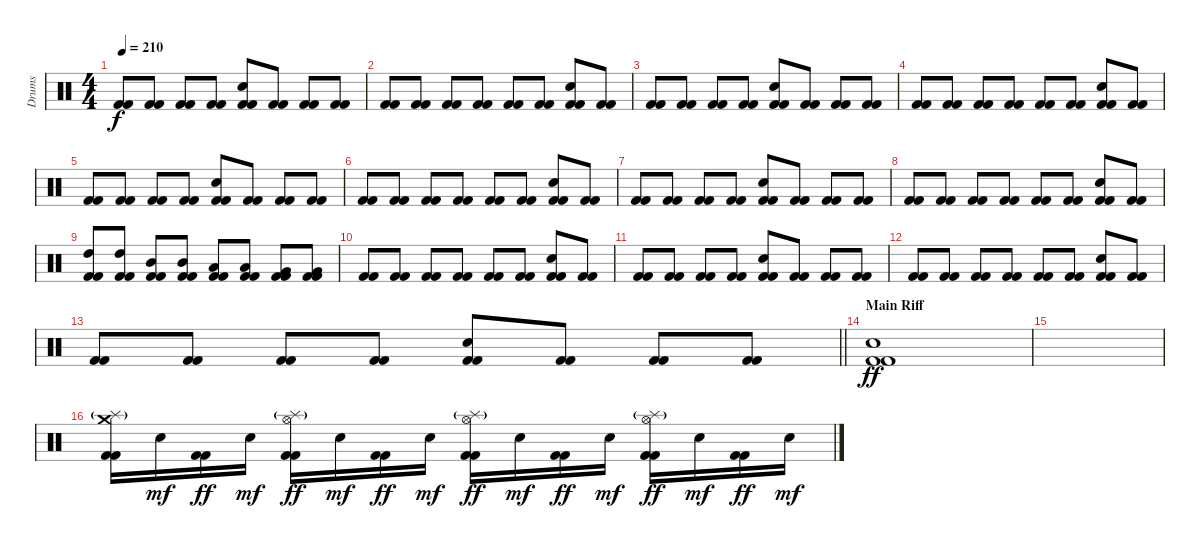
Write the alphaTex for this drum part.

\track ("Drums" "Drums") {instrument percussion}
\staff {score}
\articulation defaults
\ts (4 4)
\tempo 210
\clef neutral
\ks c
("Kick (hit) 2" "Kick (hit) 2").8{dy f} ("Kick (hit) 2" "Kick (hit) 2").8 ("Kick (hit) 2" "Kick (hit) 2").8 ("Kick (hit) 2" "Kick (hit) 2").8 ("Snare (hit) 2" "Kick (hit) 2" "Kick (hit) 2").8 ("Kick (hit) 2" "Kick (hit) 2").8 ("Kick (hit) 2" "Kick (hit) 2").8 ("Kick (hit) 2" "Kick (hit) 2").8 |
("Kick (hit) 2" "Kick (hit) 2").8 ("Kick (hit) 2" "Kick (hit) 2").8 ("Kick (hit) 2" "Kick (hit) 2").8 ("Kick (hit) 2" "Kick (hit) 2").8 ("Kick (hit) 2" "Kick (hit) 2").8 ("Kick (hit) 2" "Kick (hit) 2").8 ("Snare (hit) 2" "Kick (hit) 2" "Kick (hit) 2").8 ("Kick (hit) 2" "Kick (hit) 2").8 |
("Kick (hit) 2" "Kick (hit) 2").8 ("Kick (hit) 2" "Kick (hit) 2").8 ("Kick (hit) 2" "Kick (hit) 2").8 ("Kick (hit) 2" "Kick (hit) 2").8 ("Snare (hit) 2" "Kick (hit) 2" "Kick (hit) 2").8 ("Kick (hit) 2" "Kick (hit) 2").8 ("Kick (hit) 2" "Kick (hit) 2").8 ("Kick (hit) 2" "Kick (hit) 2").8 |
("Kick (hit) 2" "Kick (hit) 2").8 ("Kick (hit) 2" "Kick (hit) 2").8 ("Kick (hit) 2" "Kick (hit) 2").8 ("Kick (hit) 2" "Kick (hit) 2").8 ("Kick (hit) 2" "Kick (hit) 2").8 ("Kick (hit) 2" "Kick (hit) 2").8 ("Snare (hit) 2" "Kick (hit) 2" "Kick (hit) 2").8 ("Kick (hit) 2" "Kick (hit) 2").8 |
("Kick (hit) 2" "Kick (hit) 2").8 ("Kick (hit) 2" "Kick (hit) 2").8 ("Kick (hit) 2" "Kick (hit) 2").8 ("Kick (hit) 2" "Kick (hit) 2").8 ("Snare (hit) 2" "Kick (hit) 2" "Kick (hit) 2").8 ("Kick (hit) 2" "Kick (hit) 2").8 ("Kick (hit) 2" "Kick (hit) 2").8 ("Kick (hit) 2" "Kick (hit) 2").8 |
("Kick (hit) 2" "Kick (hit) 2").8 ("Kick (hit) 2" "Kick (hit) 2").8 ("Kick (hit) 2" "Kick (hit) 2").8 ("Kick (hit) 2" "Kick (hit) 2").8 ("Kick (hit) 2" "Kick (hit) 2").8 ("Kick (hit) 2" "Kick (hit) 2").8 ("Snare (hit) 2" "Kick (hit) 2" "Kick (hit) 2").8 ("Kick (hit) 2" "Kick (hit) 2").8 |
("Kick (hit) 2" "Kick (hit) 2").8 ("Kick (hit) 2" "Kick (hit) 2").8 ("Kick (hit) 2" "Kick (hit) 2").8 ("Kick (hit) 2" "Kick (hit) 2").8 ("Snare (hit) 2" "Kick (hit) 2" "Kick (hit) 2").8 ("Kick (hit) 2" "Kick (hit) 2").8 ("Kick (hit) 2" "Kick (hit) 2").8 ("Kick (hit) 2" "Kick (hit) 2").8 |
("Kick (hit) 2" "Kick (hit) 2").8 ("Kick (hit) 2" "Kick (hit) 2").8 ("Kick (hit) 2" "Kick (hit) 2").8 ("Kick (hit) 2" "Kick (hit) 2").8 ("Kick (hit) 2" "Kick (hit) 2").8 ("Kick (hit) 2" "Kick (hit) 2").8 ("Snare (hit) 2" "Kick (hit) 2" "Kick (hit) 2").8 ("Kick (hit) 2" "Kick (hit) 2").8 |
("High Tom (hit)" "Kick (hit) 2" "Kick (hit) 2").8 ("High Tom (hit)" "Kick (hit) 2" "Kick (hit) 2").8 ("Mid Tom (hit)" "Kick (hit) 2" "Kick (hit) 2").8 ("Mid Tom (hit)" "Kick (hit) 2" "Kick (hit) 2").8 ("Low Tom (hit)" "Kick (hit) 2" "Kick (hit) 2").8 ("Low Tom (hit)" "Kick (hit) 2" "Kick (hit) 2").8 ("Very Low Tom (hit)" "Kick (hit) 2" "Kick (hit) 2").8 ("Very Low Tom (hit)" "Kick (hit) 2" "Kick (hit) 2").8 |
("Kick (hit) 2" "Kick (hit) 2").8 ("Kick (hit) 2" "Kick (hit) 2").8 ("Kick (hit) 2" "Kick (hit) 2").8 ("Kick (hit) 2" "Kick (hit) 2").8 ("Kick (hit) 2" "Kick (hit) 2").8 ("Kick (hit) 2" "Kick (hit) 2").8 ("Snare (hit) 2" "Kick (hit) 2" "Kick (hit) 2").8 ("Kick (hit) 2" "Kick (hit) 2").8 |
("Kick (hit) 2" "Kick (hit) 2").8 ("Kick (hit) 2" "Kick (hit) 2").8 ("Kick (hit) 2" "Kick (hit) 2").8 ("Kick (hit) 2" "Kick (hit) 2").8 ("Snare (hit) 2" "Kick (hit) 2" "Kick (hit) 2").8 ("Kick (hit) 2" "Kick (hit) 2").8 ("Kick (hit) 2" "Kick (hit) 2").8 ("Kick (hit) 2" "Kick (hit) 2").8 |
("Kick (hit) 2" "Kick (hit) 2").8 ("Kick (hit) 2" "Kick (hit) 2").8 ("Kick (hit) 2" "Kick (hit) 2").8 ("Kick (hit) 2" "Kick (hit) 2").8 ("Kick (hit) 2" "Kick (hit) 2").8 ("Kick (hit) 2" "Kick (hit) 2").8 ("Snare (hit) 2" "Kick (hit) 2" "Kick (hit) 2").8 ("Kick (hit) 2" "Kick (hit) 2").8 |
\barLineRight lightlight
("Kick (hit) 2" "Kick (hit) 2").8 ("Kick (hit) 2" "Kick (hit) 2").8 ("Kick (hit) 2" "Kick (hit) 2").8 ("Kick (hit) 2" "Kick (hit) 2").8 ("Snare (hit) 2" "Kick (hit) 2" "Kick (hit) 2").8 ("Kick (hit) 2" "Kick (hit) 2").8 ("Kick (hit) 2" "Kick (hit) 2").8 ("Kick (hit) 2" "Kick (hit) 2").8 |
\section ("" "Main Riff")
("Snare (hit) 2" "Kick (hit) 2" "Kick (hit) 2").1{dy ff} |
|
("Crash medium (hit)" "Splash (hit)"{g} "Kick (hit) 2" "Kick (hit) 2").16 "Snare (hit) 2".16{dy mf} ("Kick (hit) 2" "Kick (hit) 2").16{dy ff} "Snare (hit) 2".16{dy mf} ("Hi-Hat (open)" "Splash (hit)"{g} "Kick (hit) 2" "Kick (hit) 2").16{dy ff} "Snare (hit) 2".16{dy mf} ("Kick (hit) 2" "Kick (hit) 2").16{dy ff} "Snare (hit) 2".16{dy mf} ("Hi-Hat (open)" "Splash (hit)"{g} "Kick (hit) 2" "Kick (hit) 2").16{dy ff} "Snare (hit) 2".16{dy mf} ("Kick (hit) 2" "Kick (hit) 2").16{dy ff} "Snare (hit) 2".16{dy mf} ("Hi-Hat (open)" "Splash (hit)"{g} "Kick (hit) 2" "Kick (hit) 2").16{dy ff} "Snare (hit) 2".16{dy mf} ("Kick (hit) 2" "Kick (hit) 2").16{dy ff} "Snare (hit) 2".16{dy mf}
